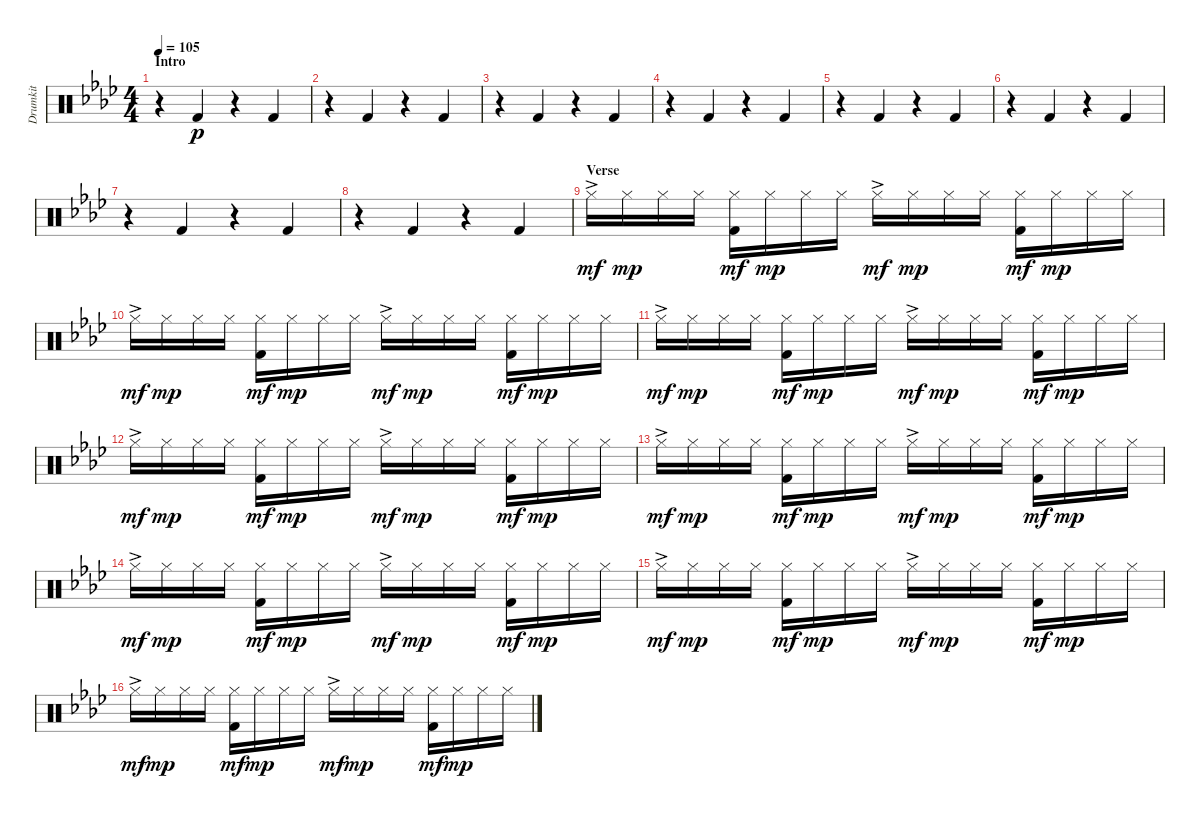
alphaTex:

\track ("Drumkit" "Drumkit") {instrument percussion}
\staff {score}
\articulation defaults
\ts (4 4)
\section ("" "Intro")
\tempo 105
\clef neutral
\ks ab
r.4{dy p} "Kick (hit) 2".4 r.4 "Kick (hit) 2".4 |
r.4 "Kick (hit) 2".4 r.4 "Kick (hit) 2".4 |
r.4 "Kick (hit) 2".4 r.4 "Kick (hit) 2".4 |
r.4 "Kick (hit) 2".4 r.4 "Kick (hit) 2".4 |
r.4 "Kick (hit) 2".4 r.4 "Kick (hit) 2".4 |
r.4 "Kick (hit) 2".4 r.4 "Kick (hit) 2".4 |
r.4 "Kick (hit) 2".4 r.4 "Kick (hit) 2".4 |
r.4 "Kick (hit) 2".4 r.4 "Kick (hit) 2".4 |
\section ("" "Verse")
"Hi-Hat (closed)"{ac}.16{dy mf} "Hi-Hat (closed)".16{dy mp} "Hi-Hat (closed)".16 "Hi-Hat (closed)".16 ("Kick (hit) 2" "Hi-Hat (closed)").16{dy mf} "Hi-Hat (closed)".16{dy mp} "Hi-Hat (closed)".16 "Hi-Hat (closed)".16 "Hi-Hat (closed)"{ac}.16{dy mf} "Hi-Hat (closed)".16{dy mp} "Hi-Hat (closed)".16 "Hi-Hat (closed)".16 ("Kick (hit) 2" "Hi-Hat (closed)").16{dy mf} "Hi-Hat (closed)".16{dy mp} "Hi-Hat (closed)".16 "Hi-Hat (closed)".16 |
"Hi-Hat (closed)"{ac}.16{dy mf} "Hi-Hat (closed)".16{dy mp} "Hi-Hat (closed)".16 "Hi-Hat (closed)".16 ("Kick (hit) 2" "Hi-Hat (closed)").16{dy mf} "Hi-Hat (closed)".16{dy mp} "Hi-Hat (closed)".16 "Hi-Hat (closed)".16 "Hi-Hat (closed)"{ac}.16{dy mf} "Hi-Hat (closed)".16{dy mp} "Hi-Hat (closed)".16 "Hi-Hat (closed)".16 ("Kick (hit) 2" "Hi-Hat (closed)").16{dy mf} "Hi-Hat (closed)".16{dy mp} "Hi-Hat (closed)".16 "Hi-Hat (closed)".16 |
"Hi-Hat (closed)"{ac}.16{dy mf} "Hi-Hat (closed)".16{dy mp} "Hi-Hat (closed)".16 "Hi-Hat (closed)".16 ("Kick (hit) 2" "Hi-Hat (closed)").16{dy mf} "Hi-Hat (closed)".16{dy mp} "Hi-Hat (closed)".16 "Hi-Hat (closed)".16 "Hi-Hat (closed)"{ac}.16{dy mf} "Hi-Hat (closed)".16{dy mp} "Hi-Hat (closed)".16 "Hi-Hat (closed)".16 ("Kick (hit) 2" "Hi-Hat (closed)").16{dy mf} "Hi-Hat (closed)".16{dy mp} "Hi-Hat (closed)".16 "Hi-Hat (closed)".16 |
"Hi-Hat (closed)"{ac}.16{dy mf} "Hi-Hat (closed)".16{dy mp} "Hi-Hat (closed)".16 "Hi-Hat (closed)".16 ("Kick (hit) 2" "Hi-Hat (closed)").16{dy mf} "Hi-Hat (closed)".16{dy mp} "Hi-Hat (closed)".16 "Hi-Hat (closed)".16 "Hi-Hat (closed)"{ac}.16{dy mf} "Hi-Hat (closed)".16{dy mp} "Hi-Hat (closed)".16 "Hi-Hat (closed)".16 ("Kick (hit) 2" "Hi-Hat (closed)").16{dy mf} "Hi-Hat (closed)".16{dy mp} "Hi-Hat (closed)".16 "Hi-Hat (closed)".16 |
"Hi-Hat (closed)"{ac}.16{dy mf} "Hi-Hat (closed)".16{dy mp} "Hi-Hat (closed)".16 "Hi-Hat (closed)".16 ("Kick (hit) 2" "Hi-Hat (closed)").16{dy mf} "Hi-Hat (closed)".16{dy mp} "Hi-Hat (closed)".16 "Hi-Hat (closed)".16 "Hi-Hat (closed)"{ac}.16{dy mf} "Hi-Hat (closed)".16{dy mp} "Hi-Hat (closed)".16 "Hi-Hat (closed)".16 ("Kick (hit) 2" "Hi-Hat (closed)").16{dy mf} "Hi-Hat (closed)".16{dy mp} "Hi-Hat (closed)".16 "Hi-Hat (closed)".16 |
"Hi-Hat (closed)"{ac}.16{dy mf} "Hi-Hat (closed)".16{dy mp} "Hi-Hat (closed)".16 "Hi-Hat (closed)".16 ("Kick (hit) 2" "Hi-Hat (closed)").16{dy mf} "Hi-Hat (closed)".16{dy mp} "Hi-Hat (closed)".16 "Hi-Hat (closed)".16 "Hi-Hat (closed)"{ac}.16{dy mf} "Hi-Hat (closed)".16{dy mp} "Hi-Hat (closed)".16 "Hi-Hat (closed)".16 ("Kick (hit) 2" "Hi-Hat (closed)").16{dy mf} "Hi-Hat (closed)".16{dy mp} "Hi-Hat (closed)".16 "Hi-Hat (closed)".16 |
"Hi-Hat (closed)"{ac}.16{dy mf} "Hi-Hat (closed)".16{dy mp} "Hi-Hat (closed)".16 "Hi-Hat (closed)".16 ("Kick (hit) 2" "Hi-Hat (closed)").16{dy mf} "Hi-Hat (closed)".16{dy mp} "Hi-Hat (closed)".16 "Hi-Hat (closed)".16 "Hi-Hat (closed)"{ac}.16{dy mf} "Hi-Hat (closed)".16{dy mp} "Hi-Hat (closed)".16 "Hi-Hat (closed)".16 ("Kick (hit) 2" "Hi-Hat (closed)").16{dy mf} "Hi-Hat (closed)".16{dy mp} "Hi-Hat (closed)".16 "Hi-Hat (closed)".16 |
"Hi-Hat (closed)"{ac}.16{dy mf} "Hi-Hat (closed)".16{dy mp} "Hi-Hat (closed)".16 "Hi-Hat (closed)".16 ("Kick (hit) 2" "Hi-Hat (closed)").16{dy mf} "Hi-Hat (closed)".16{dy mp} "Hi-Hat (closed)".16 "Hi-Hat (closed)".16 "Hi-Hat (closed)"{ac}.16{dy mf} "Hi-Hat (closed)".16{dy mp} "Hi-Hat (closed)".16 "Hi-Hat (closed)".16 ("Kick (hit) 2" "Hi-Hat (closed)").16{dy mf} "Hi-Hat (closed)".16{dy mp} "Hi-Hat (closed)".16 "Hi-Hat (closed)".16
